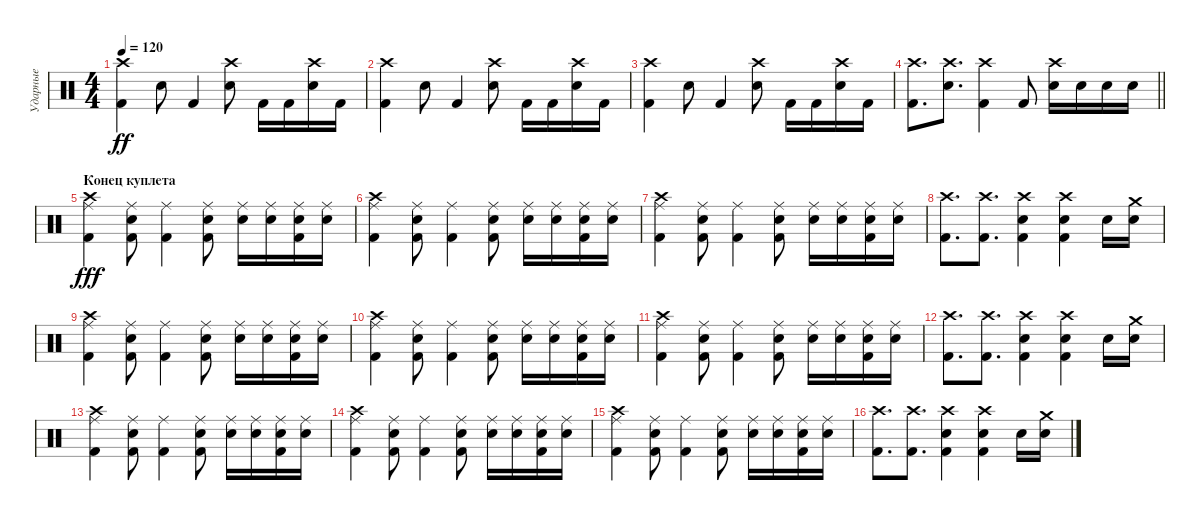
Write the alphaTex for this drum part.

\track ("Ударные" "Ударные") {instrument percussion}
\staff {score}
\articulation defaults
\ts (4 4)
\tempo 120
\clef neutral
\ks c
("Crash high (hit)" "Kick (hit) 2").4{dy ff} "Snare (hit) 2".8 "Kick (hit) 2".4 ("Crash high (hit)" "Snare (hit) 2").8 "Kick (hit) 2".16 "Kick (hit) 2".16 ("Crash high (hit)" "Snare (hit) 2").16 "Kick (hit) 2".16 |
("Crash high (hit)" "Kick (hit) 2").4 "Snare (hit) 2".8 "Kick (hit) 2".4 ("Crash high (hit)" "Snare (hit) 2").8 "Kick (hit) 2".16 "Kick (hit) 2".16 ("Crash high (hit)" "Snare (hit) 2").16 "Kick (hit) 2".16 |
("Crash high (hit)" "Kick (hit) 2").4 "Snare (hit) 2".8 "Kick (hit) 2".4 ("Crash high (hit)" "Snare (hit) 2").8 "Kick (hit) 2".16 "Kick (hit) 2".16 ("Crash high (hit)" "Snare (hit) 2").16 "Kick (hit) 2".16 |
\barLineRight lightlight
("Crash high (hit)" "Kick (hit) 2").8{d} ("Crash high (hit)" "Snare (hit) 2").8{d} ("Crash high (hit)" "Kick (hit) 2").4 "Kick (hit) 2".8 ("Crash high (hit)" "Snare (hit) 2").16 "Snare (hit) 2".16 "Snare (hit) 2".16 "Snare (hit) 2".16 |
\section ("" "Конец куплета")
("Ride (middle)" "Kick (hit) 2" "Crash high (hit)").4{dy fff} ("Ride (middle)" "Kick (hit) 2" "Snare (hit) 2").8 ("Ride (middle)" "Kick (hit) 2").4 ("Ride (middle)" "Kick (hit) 2" "Snare (hit) 2").8 ("Ride (middle)" "Snare (hit) 2").16 ("Ride (middle)" "Snare (hit) 2").16 ("Ride (middle)" "Kick (hit) 2" "Snare (hit) 2").16 ("Ride (middle)" "Snare (hit) 2").16 |
("Ride (middle)" "Kick (hit) 2" "Crash high (hit)").4 ("Ride (middle)" "Kick (hit) 2" "Snare (hit) 2").8 ("Ride (middle)" "Kick (hit) 2").4 ("Ride (middle)" "Kick (hit) 2" "Snare (hit) 2").8 ("Ride (middle)" "Snare (hit) 2").16 ("Ride (middle)" "Snare (hit) 2").16 ("Ride (middle)" "Kick (hit) 2" "Snare (hit) 2").16 ("Ride (middle)" "Snare (hit) 2").16 |
("Ride (middle)" "Kick (hit) 2" "Crash high (hit)").4 ("Ride (middle)" "Kick (hit) 2" "Snare (hit) 2").8 ("Ride (middle)" "Kick (hit) 2").4 ("Ride (middle)" "Kick (hit) 2" "Snare (hit) 2").8 ("Ride (middle)" "Snare (hit) 2").16 ("Ride (middle)" "Snare (hit) 2").16 ("Ride (middle)" "Kick (hit) 2" "Snare (hit) 2").16 ("Ride (middle)" "Snare (hit) 2").16 |
("Crash high (hit)" "Kick (hit) 2").8{d} ("Crash high (hit)" "Kick (hit) 2").8{d} ("Crash high (hit)" "Snare (hit) 2" "Kick (hit) 2").4 ("Crash high (hit)" "Snare (hit) 2" "Kick (hit) 2").4 "Snare (hit) 2".16 ("Snare (hit) 2" "Crash medium (hit)").16 |
("Ride (middle)" "Kick (hit) 2" "Crash high (hit)").4 ("Ride (middle)" "Kick (hit) 2" "Snare (hit) 2").8 ("Ride (middle)" "Kick (hit) 2").4 ("Ride (middle)" "Kick (hit) 2" "Snare (hit) 2").8 ("Ride (middle)" "Snare (hit) 2").16 ("Ride (middle)" "Snare (hit) 2").16 ("Ride (middle)" "Kick (hit) 2" "Snare (hit) 2").16 ("Ride (middle)" "Snare (hit) 2").16 |
("Ride (middle)" "Kick (hit) 2" "Crash high (hit)").4 ("Ride (middle)" "Kick (hit) 2" "Snare (hit) 2").8 ("Ride (middle)" "Kick (hit) 2").4 ("Ride (middle)" "Kick (hit) 2" "Snare (hit) 2").8 ("Ride (middle)" "Snare (hit) 2").16 ("Ride (middle)" "Snare (hit) 2").16 ("Ride (middle)" "Kick (hit) 2" "Snare (hit) 2").16 ("Ride (middle)" "Snare (hit) 2").16 |
("Ride (middle)" "Kick (hit) 2" "Crash high (hit)").4 ("Ride (middle)" "Kick (hit) 2" "Snare (hit) 2").8 ("Ride (middle)" "Kick (hit) 2").4 ("Ride (middle)" "Kick (hit) 2" "Snare (hit) 2").8 ("Ride (middle)" "Snare (hit) 2").16 ("Ride (middle)" "Snare (hit) 2").16 ("Ride (middle)" "Kick (hit) 2" "Snare (hit) 2").16 ("Ride (middle)" "Snare (hit) 2").16 |
("Crash high (hit)" "Kick (hit) 2").8{d} ("Crash high (hit)" "Kick (hit) 2").8{d} ("Crash high (hit)" "Snare (hit) 2" "Kick (hit) 2").4 ("Crash high (hit)" "Snare (hit) 2" "Kick (hit) 2").4 "Snare (hit) 2".16 ("Snare (hit) 2" "Crash medium (hit)").16 |
("Ride (middle)" "Kick (hit) 2" "Crash high (hit)").4 ("Ride (middle)" "Kick (hit) 2" "Snare (hit) 2").8 ("Ride (middle)" "Kick (hit) 2").4 ("Ride (middle)" "Kick (hit) 2" "Snare (hit) 2").8 ("Ride (middle)" "Snare (hit) 2").16 ("Ride (middle)" "Snare (hit) 2").16 ("Ride (middle)" "Kick (hit) 2" "Snare (hit) 2").16 ("Ride (middle)" "Snare (hit) 2").16 |
("Ride (middle)" "Kick (hit) 2" "Crash high (hit)").4 ("Ride (middle)" "Kick (hit) 2" "Snare (hit) 2").8 ("Ride (middle)" "Kick (hit) 2").4 ("Ride (middle)" "Kick (hit) 2" "Snare (hit) 2").8 ("Ride (middle)" "Snare (hit) 2").16 ("Ride (middle)" "Snare (hit) 2").16 ("Ride (middle)" "Kick (hit) 2" "Snare (hit) 2").16 ("Ride (middle)" "Snare (hit) 2").16 |
("Ride (middle)" "Kick (hit) 2" "Crash high (hit)").4 ("Ride (middle)" "Kick (hit) 2" "Snare (hit) 2").8 ("Ride (middle)" "Kick (hit) 2").4 ("Ride (middle)" "Kick (hit) 2" "Snare (hit) 2").8 ("Ride (middle)" "Snare (hit) 2").16 ("Ride (middle)" "Snare (hit) 2").16 ("Ride (middle)" "Kick (hit) 2" "Snare (hit) 2").16 ("Ride (middle)" "Snare (hit) 2").16 |
("Crash high (hit)" "Kick (hit) 2").8{d} ("Crash high (hit)" "Kick (hit) 2").8{d} ("Crash high (hit)" "Snare (hit) 2" "Kick (hit) 2").4 ("Crash high (hit)" "Snare (hit) 2" "Kick (hit) 2").4 "Snare (hit) 2".16 ("Snare (hit) 2" "Crash medium (hit)").16
